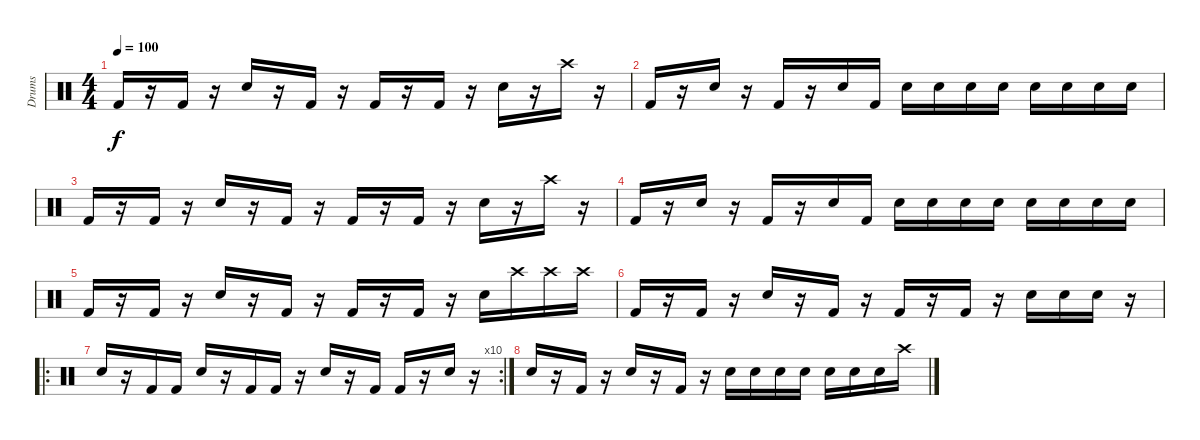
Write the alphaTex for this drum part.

\track ("Drums" "Drums") {instrument percussion}
\staff {score}
\articulation defaults
\ts (4 4)
\tempo 100
\clef neutral
\ks c "Kick (hit) 2".16{dy f}
r.16 "Kick (hit) 2".16 r.16 "Snare (hit) 2".16 r.16 "Kick (hit) 2".16 r.16 "Kick (hit) 2".16 r.16 "Kick (hit) 2".16 r.16 "Snare (hit) 2".16 r.16 "Crash high (hit)".16 r.16 |
"Kick (hit) 2".16 r.16 "Snare (hit) 2".16 r.16 "Kick (hit) 2".16 r.16 "Snare (hit) 2".16 "Kick (hit) 2".16 "Snare (hit) 2".16 "Snare (hit) 2".16 "Snare (hit) 2".16 "Snare (hit) 2".16 "Snare (hit) 2".16 "Snare (hit) 2".16 "Snare (hit) 2".16 "Snare (hit) 2".16 |
"Kick (hit) 2".16 r.16 "Kick (hit) 2".16 r.16 "Snare (hit) 2".16 r.16 "Kick (hit) 2".16 r.16 "Kick (hit) 2".16 r.16 "Kick (hit) 2".16 r.16 "Snare (hit) 2".16 r.16 "Crash high (hit)".16 r.16 |
"Kick (hit) 2".16 r.16 "Snare (hit) 2".16 r.16 "Kick (hit) 2".16 r.16 "Snare (hit) 2".16 "Kick (hit) 2".16 "Snare (hit) 2".16 "Snare (hit) 2".16 "Snare (hit) 2".16 "Snare (hit) 2".16 "Snare (hit) 2".16 "Snare (hit) 2".16 "Snare (hit) 2".16 "Snare (hit) 2".16 |
"Kick (hit) 2".16 r.16 "Kick (hit) 2".16 r.16 "Snare (hit) 2".16 r.16 "Kick (hit) 2".16 r.16 "Kick (hit) 2".16 r.16 "Kick (hit) 2".16 r.16 "Snare (hit) 2".16 "Crash high (hit)".16 "Crash high (hit)".16 "Crash high (hit)".16 |
"Kick (hit) 2".16 r.16 "Kick (hit) 2".16 r.16 "Snare (hit) 2".16 r.16 "Kick (hit) 2".16 r.16 "Kick (hit) 2".16 r.16 "Kick (hit) 2".16 r.16 "Snare (hit) 2".16 "Snare (hit) 2".16 "Snare (hit) 2".16 r.16 |
\ro
\rc 10 "Snare (hit) 2".16
r.16 "Kick (hit) 2".16 "Kick (hit) 2".16 "Snare (hit) 2".16 r.16 "Kick (hit) 2".16 "Kick (hit) 2".16 r.16 "Snare (hit) 2".16 r.16 "Kick (hit) 2".16 "Kick (hit) 2".16 r.16 "Snare (hit) 2".16 r.16 |
"Snare (hit) 2".16 r.16 "Kick (hit) 2".16 r.16 "Snare (hit) 2".16 r.16 "Kick (hit) 2".16 r.16 "Snare (hit) 2".16 "Snare (hit) 2".16 "Snare (hit) 2".16 "Snare (hit) 2".16 "Snare (hit) 2".16 "Snare (hit) 2".16 "Snare (hit) 2".16 "Crash high (hit)".16
